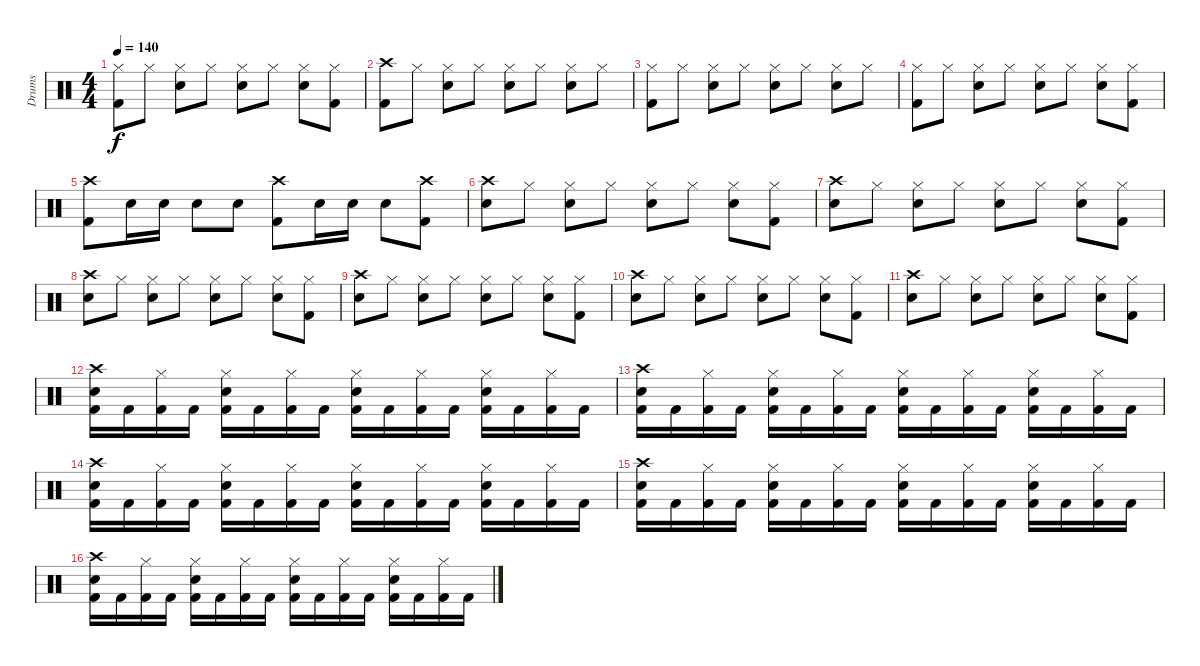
\track ("Drums" "Drums") {instrument percussion}
\staff {score}
\articulation defaults
\ts (4 4)
\tempo 140
\clef neutral
\ks c
("Hi-Hat (closed)" "Kick (hit) 2").8{dy f} "Hi-Hat (closed)".8 ("Hi-Hat (closed)" "Snare (hit) 2").8 "Hi-Hat (closed)".8 ("Hi-Hat (closed)" "Snare (hit) 2").8 "Hi-Hat (closed)".8 ("Hi-Hat (closed)" "Snare (hit) 2").8 ("Hi-Hat (closed)" "Kick (hit) 2").8 |
("Crash high (hit)" "Kick (hit) 2").8 "Hi-Hat (closed)".8 ("Hi-Hat (closed)" "Snare (hit) 2").8 "Hi-Hat (closed)".8 ("Hi-Hat (closed)" "Snare (hit) 2").8 "Hi-Hat (closed)".8 ("Hi-Hat (closed)" "Snare (hit) 2").8 "Hi-Hat (closed)".8 |
("Hi-Hat (closed)" "Kick (hit) 2").8 "Hi-Hat (closed)".8 ("Hi-Hat (closed)" "Snare (hit) 2").8 "Hi-Hat (closed)".8 ("Hi-Hat (closed)" "Snare (hit) 2").8 "Hi-Hat (closed)".8 ("Hi-Hat (closed)" "Snare (hit) 2").8 "Hi-Hat (closed)".8 |
("Hi-Hat (closed)" "Kick (hit) 2").8 "Hi-Hat (closed)".8 ("Hi-Hat (closed)" "Snare (hit) 2").8 "Hi-Hat (closed)".8 ("Hi-Hat (closed)" "Snare (hit) 2").8 "Hi-Hat (closed)".8 ("Hi-Hat (closed)" "Snare (hit) 2").8 ("Hi-Hat (closed)" "Kick (hit) 2").8 |
("Crash high (hit)" "Kick (hit) 2").8 "Snare (hit) 2".16 "Snare (hit) 2".16 "Snare (hit) 2".8 "Snare (hit) 2".8 ("Crash high (hit)" "Kick (hit) 2").8 "Snare (hit) 2".16 "Snare (hit) 2".16 "Snare (hit) 2".8 ("Crash high (hit)" "Kick (hit) 2").8 |
("Crash high (hit)" "Snare (hit) 2").8 "Hi-Hat (closed)".8 ("Hi-Hat (closed)" "Snare (hit) 2").8 "Hi-Hat (closed)".8 ("Hi-Hat (closed)" "Snare (hit) 2").8 "Hi-Hat (closed)".8 ("Hi-Hat (closed)" "Snare (hit) 2").8 ("Hi-Hat (closed)" "Kick (hit) 2").8 |
("Crash high (hit)" "Snare (hit) 2").8 "Hi-Hat (closed)".8 ("Hi-Hat (closed)" "Snare (hit) 2").8 "Hi-Hat (closed)".8 ("Hi-Hat (closed)" "Snare (hit) 2").8 "Hi-Hat (closed)".8 ("Hi-Hat (closed)" "Snare (hit) 2").8 ("Hi-Hat (closed)" "Kick (hit) 2").8 |
("Crash high (hit)" "Snare (hit) 2").8 "Hi-Hat (closed)".8 ("Hi-Hat (closed)" "Snare (hit) 2").8 "Hi-Hat (closed)".8 ("Hi-Hat (closed)" "Snare (hit) 2").8 "Hi-Hat (closed)".8 ("Hi-Hat (closed)" "Snare (hit) 2").8 ("Hi-Hat (closed)" "Kick (hit) 2").8 |
("Crash high (hit)" "Snare (hit) 2").8 "Hi-Hat (closed)".8 ("Hi-Hat (closed)" "Snare (hit) 2").8 "Hi-Hat (closed)".8 ("Hi-Hat (closed)" "Snare (hit) 2").8 "Hi-Hat (closed)".8 ("Hi-Hat (closed)" "Snare (hit) 2").8 ("Hi-Hat (closed)" "Kick (hit) 2").8 |
("Crash high (hit)" "Snare (hit) 2").8 "Hi-Hat (closed)".8 ("Hi-Hat (closed)" "Snare (hit) 2").8 "Hi-Hat (closed)".8 ("Hi-Hat (closed)" "Snare (hit) 2").8 "Hi-Hat (closed)".8 ("Hi-Hat (closed)" "Snare (hit) 2").8 ("Hi-Hat (closed)" "Kick (hit) 2").8 |
("Crash high (hit)" "Snare (hit) 2").8 "Hi-Hat (closed)".8 ("Hi-Hat (closed)" "Snare (hit) 2").8 "Hi-Hat (closed)".8 ("Hi-Hat (closed)" "Snare (hit) 2").8 "Hi-Hat (closed)".8 ("Hi-Hat (closed)" "Snare (hit) 2").8 ("Hi-Hat (closed)" "Kick (hit) 2").8 |
("Crash high (hit)" "Snare (hit) 2" "Kick (hit) 2").16 "Kick (hit) 2".16 ("Hi-Hat (closed)" "Kick (hit) 2").16 "Kick (hit) 2".16 ("Hi-Hat (closed)" "Snare (hit) 2" "Kick (hit) 2").16 "Kick (hit) 2".16 ("Hi-Hat (closed)" "Kick (hit) 2").16 "Kick (hit) 2".16 ("Hi-Hat (closed)" "Snare (hit) 2" "Kick (hit) 2").16 "Kick (hit) 2".16 ("Hi-Hat (closed)" "Kick (hit) 2").16 "Kick (hit) 2".16 ("Hi-Hat (closed)" "Snare (hit) 2" "Kick (hit) 2").16 "Kick (hit) 2".16 ("Hi-Hat (closed)" "Kick (hit) 2").16 "Kick (hit) 2".16 |
("Crash high (hit)" "Snare (hit) 2" "Kick (hit) 2").16 "Kick (hit) 2".16 ("Hi-Hat (closed)" "Kick (hit) 2").16 "Kick (hit) 2".16 ("Hi-Hat (closed)" "Snare (hit) 2" "Kick (hit) 2").16 "Kick (hit) 2".16 ("Hi-Hat (closed)" "Kick (hit) 2").16 "Kick (hit) 2".16 ("Hi-Hat (closed)" "Snare (hit) 2" "Kick (hit) 2").16 "Kick (hit) 2".16 ("Hi-Hat (closed)" "Kick (hit) 2").16 "Kick (hit) 2".16 ("Hi-Hat (closed)" "Snare (hit) 2" "Kick (hit) 2").16 "Kick (hit) 2".16 ("Hi-Hat (closed)" "Kick (hit) 2").16 "Kick (hit) 2".16 |
("Crash high (hit)" "Snare (hit) 2" "Kick (hit) 2").16 "Kick (hit) 2".16 ("Hi-Hat (closed)" "Kick (hit) 2").16 "Kick (hit) 2".16 ("Hi-Hat (closed)" "Snare (hit) 2" "Kick (hit) 2").16 "Kick (hit) 2".16 ("Hi-Hat (closed)" "Kick (hit) 2").16 "Kick (hit) 2".16 ("Hi-Hat (closed)" "Snare (hit) 2" "Kick (hit) 2").16 "Kick (hit) 2".16 ("Hi-Hat (closed)" "Kick (hit) 2").16 "Kick (hit) 2".16 ("Hi-Hat (closed)" "Snare (hit) 2" "Kick (hit) 2").16 "Kick (hit) 2".16 ("Hi-Hat (closed)" "Kick (hit) 2").16 "Kick (hit) 2".16 |
("Crash high (hit)" "Snare (hit) 2" "Kick (hit) 2").16 "Kick (hit) 2".16 ("Hi-Hat (closed)" "Kick (hit) 2").16 "Kick (hit) 2".16 ("Hi-Hat (closed)" "Snare (hit) 2" "Kick (hit) 2").16 "Kick (hit) 2".16 ("Hi-Hat (closed)" "Kick (hit) 2").16 "Kick (hit) 2".16 ("Hi-Hat (closed)" "Snare (hit) 2" "Kick (hit) 2").16 "Kick (hit) 2".16 ("Hi-Hat (closed)" "Kick (hit) 2").16 "Kick (hit) 2".16 ("Hi-Hat (closed)" "Snare (hit) 2" "Kick (hit) 2").16 "Kick (hit) 2".16 ("Hi-Hat (closed)" "Kick (hit) 2").16 "Kick (hit) 2".16 |
("Crash high (hit)" "Snare (hit) 2" "Kick (hit) 2").16 "Kick (hit) 2".16 ("Hi-Hat (closed)" "Kick (hit) 2").16 "Kick (hit) 2".16 ("Hi-Hat (closed)" "Snare (hit) 2" "Kick (hit) 2").16 "Kick (hit) 2".16 ("Hi-Hat (closed)" "Kick (hit) 2").16 "Kick (hit) 2".16 ("Hi-Hat (closed)" "Snare (hit) 2" "Kick (hit) 2").16 "Kick (hit) 2".16 ("Hi-Hat (closed)" "Kick (hit) 2").16 "Kick (hit) 2".16 ("Hi-Hat (closed)" "Snare (hit) 2" "Kick (hit) 2").16 "Kick (hit) 2".16 ("Hi-Hat (closed)" "Kick (hit) 2").16 "Kick (hit) 2".16
